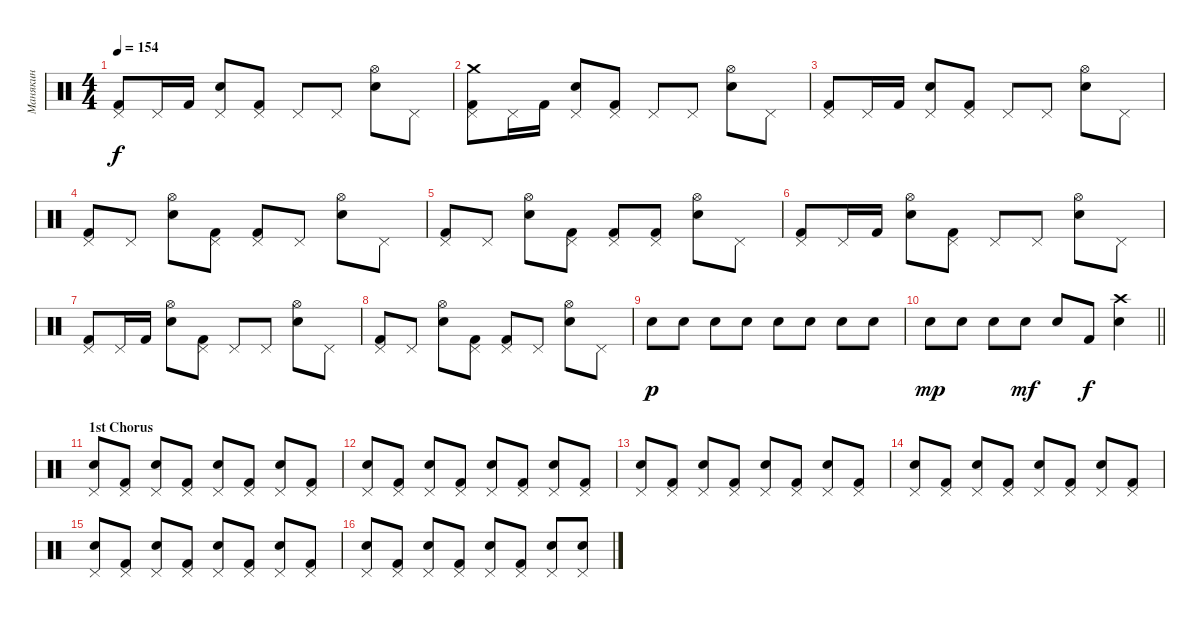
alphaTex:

\track ("Манякин" "Манякин") {instrument percussion}
\staff {score}
\articulation defaults
\ts (4 4)
\tempo 154
\clef neutral
\ks c
("Pedal Hi-Hat (hit)" "Kick (hit) 2").8{dy f} "Pedal Hi-Hat (hit)".16 "Kick (hit) 2".16 ("Pedal Hi-Hat (hit)" "Electric Snare (hit)").8 ("Pedal Hi-Hat (hit)" "Kick (hit) 2").8 "Pedal Hi-Hat (hit)".8 "Pedal Hi-Hat (hit)".8 ("Hi-Hat (open)" "Electric Snare (hit)").8 "Pedal Hi-Hat (hit)".8 |
("Crash medium (hit)" "Pedal Hi-Hat (hit)" "Kick (hit) 2").8 "Pedal Hi-Hat (hit)".16 "Kick (hit) 2".16 ("Pedal Hi-Hat (hit)" "Electric Snare (hit)").8 ("Pedal Hi-Hat (hit)" "Kick (hit) 2").8 "Pedal Hi-Hat (hit)".8 "Pedal Hi-Hat (hit)".8 ("Hi-Hat (open)" "Electric Snare (hit)").8 "Pedal Hi-Hat (hit)".8 |
("Pedal Hi-Hat (hit)" "Kick (hit) 2").8 "Pedal Hi-Hat (hit)".16 "Kick (hit) 2".16 ("Pedal Hi-Hat (hit)" "Electric Snare (hit)").8 ("Pedal Hi-Hat (hit)" "Kick (hit) 2").8 "Pedal Hi-Hat (hit)".8 "Pedal Hi-Hat (hit)".8 ("Hi-Hat (open)" "Electric Snare (hit)").8 "Pedal Hi-Hat (hit)".8 |
("Pedal Hi-Hat (hit)" "Kick (hit) 2").8 "Pedal Hi-Hat (hit)".8 ("Hi-Hat (open)" "Electric Snare (hit)").8 ("Pedal Hi-Hat (hit)" "Kick (hit) 2").8 ("Pedal Hi-Hat (hit)" "Kick (hit) 2").8 "Pedal Hi-Hat (hit)".8 ("Hi-Hat (open)" "Electric Snare (hit)").8 "Pedal Hi-Hat (hit)".8 |
("Pedal Hi-Hat (hit)" "Kick (hit) 2").8 "Pedal Hi-Hat (hit)".8 ("Hi-Hat (open)" "Electric Snare (hit)").8 ("Pedal Hi-Hat (hit)" "Kick (hit) 2").8 ("Pedal Hi-Hat (hit)" "Kick (hit) 2").8 ("Pedal Hi-Hat (hit)" "Kick (hit) 2").8 ("Hi-Hat (open)" "Electric Snare (hit)").8 "Pedal Hi-Hat (hit)".8 |
("Pedal Hi-Hat (hit)" "Kick (hit) 2").8 "Pedal Hi-Hat (hit)".16 "Kick (hit) 2".16 ("Hi-Hat (open)" "Electric Snare (hit)").8 ("Pedal Hi-Hat (hit)" "Kick (hit) 2").8 "Pedal Hi-Hat (hit)".8 "Pedal Hi-Hat (hit)".8 ("Hi-Hat (open)" "Electric Snare (hit)").8 "Pedal Hi-Hat (hit)".8 |
("Pedal Hi-Hat (hit)" "Kick (hit) 2").8 "Pedal Hi-Hat (hit)".16 "Kick (hit) 2".16 ("Hi-Hat (open)" "Electric Snare (hit)").8 ("Pedal Hi-Hat (hit)" "Kick (hit) 2").8 "Pedal Hi-Hat (hit)".8 "Pedal Hi-Hat (hit)".8 ("Hi-Hat (open)" "Electric Snare (hit)").8 "Pedal Hi-Hat (hit)".8 |
("Pedal Hi-Hat (hit)" "Kick (hit) 2").8 "Pedal Hi-Hat (hit)".8 ("Hi-Hat (open)" "Electric Snare (hit)").8 ("Pedal Hi-Hat (hit)" "Kick (hit) 2").8 ("Pedal Hi-Hat (hit)" "Kick (hit) 2").8 "Pedal Hi-Hat (hit)".8 ("Hi-Hat (open)" "Electric Snare (hit)").8 "Pedal Hi-Hat (hit)".8 |
"Electric Snare (hit)".8{dy p} "Electric Snare (hit)".8 "Electric Snare (hit)".8 "Electric Snare (hit)".8 "Electric Snare (hit)".8 "Electric Snare (hit)".8 "Electric Snare (hit)".8 "Electric Snare (hit)".8 |
\barLineRight lightlight "Electric Snare (hit)".8{dy mp} "Electric Snare (hit)".8 "Electric Snare (hit)".8 "Electric Snare (hit)".8{dy mf} "Electric Snare (hit)".8 "Kick (hit) 2".8{dy f}
("Crash high (hit)" "Electric Snare (hit)").4 |
\section ("" "1st Chorus")
("Electric Snare (hit)" "Pedal Hi-Hat (hit)").8 ("Kick (hit) 2" "Pedal Hi-Hat (hit)").8 ("Electric Snare (hit)" "Pedal Hi-Hat (hit)").8 ("Kick (hit) 2" "Pedal Hi-Hat (hit)").8 ("Electric Snare (hit)" "Pedal Hi-Hat (hit)").8 ("Kick (hit) 2" "Pedal Hi-Hat (hit)").8 ("Electric Snare (hit)" "Pedal Hi-Hat (hit)").8 ("Kick (hit) 2" "Pedal Hi-Hat (hit)").8 |
("Electric Snare (hit)" "Pedal Hi-Hat (hit)").8 ("Kick (hit) 2" "Pedal Hi-Hat (hit)").8 ("Electric Snare (hit)" "Pedal Hi-Hat (hit)").8 ("Kick (hit) 2" "Pedal Hi-Hat (hit)").8 ("Electric Snare (hit)" "Pedal Hi-Hat (hit)").8 ("Kick (hit) 2" "Pedal Hi-Hat (hit)").8 ("Electric Snare (hit)" "Pedal Hi-Hat (hit)").8 ("Kick (hit) 2" "Pedal Hi-Hat (hit)").8 |
("Electric Snare (hit)" "Pedal Hi-Hat (hit)").8 ("Kick (hit) 2" "Pedal Hi-Hat (hit)").8 ("Electric Snare (hit)" "Pedal Hi-Hat (hit)").8 ("Kick (hit) 2" "Pedal Hi-Hat (hit)").8 ("Electric Snare (hit)" "Pedal Hi-Hat (hit)").8 ("Kick (hit) 2" "Pedal Hi-Hat (hit)").8 ("Electric Snare (hit)" "Pedal Hi-Hat (hit)").8 ("Kick (hit) 2" "Pedal Hi-Hat (hit)").8 |
("Electric Snare (hit)" "Pedal Hi-Hat (hit)").8 ("Kick (hit) 2" "Pedal Hi-Hat (hit)").8 ("Electric Snare (hit)" "Pedal Hi-Hat (hit)").8 ("Kick (hit) 2" "Pedal Hi-Hat (hit)").8 ("Electric Snare (hit)" "Pedal Hi-Hat (hit)").8 ("Kick (hit) 2" "Pedal Hi-Hat (hit)").8 ("Electric Snare (hit)" "Pedal Hi-Hat (hit)").8 ("Kick (hit) 2" "Pedal Hi-Hat (hit)").8 |
("Electric Snare (hit)" "Pedal Hi-Hat (hit)").8 ("Kick (hit) 2" "Pedal Hi-Hat (hit)").8 ("Electric Snare (hit)" "Pedal Hi-Hat (hit)").8 ("Kick (hit) 2" "Pedal Hi-Hat (hit)").8 ("Electric Snare (hit)" "Pedal Hi-Hat (hit)").8 ("Kick (hit) 2" "Pedal Hi-Hat (hit)").8 ("Electric Snare (hit)" "Pedal Hi-Hat (hit)").8 ("Kick (hit) 2" "Pedal Hi-Hat (hit)").8 |
("Electric Snare (hit)" "Pedal Hi-Hat (hit)").8 ("Kick (hit) 2" "Pedal Hi-Hat (hit)").8 ("Electric Snare (hit)" "Pedal Hi-Hat (hit)").8 ("Kick (hit) 2" "Pedal Hi-Hat (hit)").8 ("Electric Snare (hit)" "Pedal Hi-Hat (hit)").8 ("Kick (hit) 2" "Pedal Hi-Hat (hit)").8 ("Electric Snare (hit)" "Pedal Hi-Hat (hit)").8 ("Electric Snare (hit)" "Pedal Hi-Hat (hit)").8
